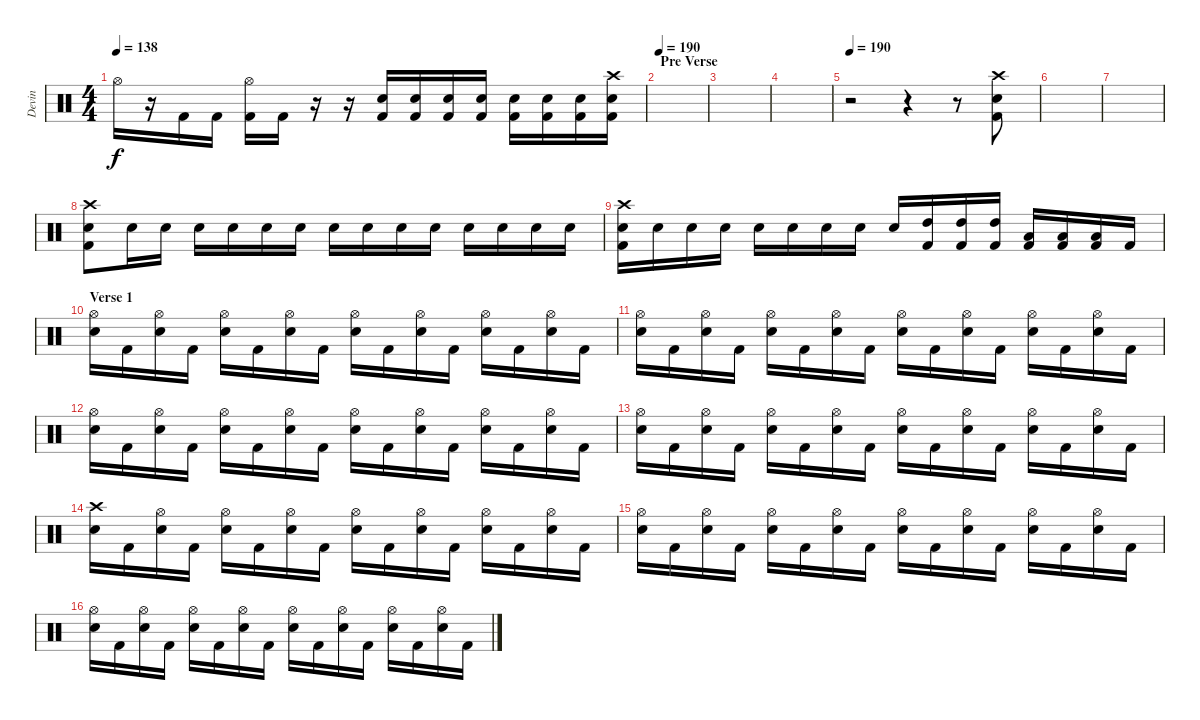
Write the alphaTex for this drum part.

\track ("Devin" "Devin") {instrument percussion}
\staff {score}
\articulation defaults
\ts (4 4)
\tempo 138
\clef neutral
\ks c "Hi-Hat (open)".16{dy f}
r.16 "Kick (hit) 2".16 "Kick (hit) 2".16 ("Hi-Hat (open)" "Kick (hit) 2").16 "Kick (hit) 2".16 r.16 r.16 ("Electric Snare (hit)" "Kick (hit) 2").16 ("Electric Snare (hit)" "Kick (hit) 2").16 ("Electric Snare (hit)" "Kick (hit) 2").16 ("Electric Snare (hit)" "Kick (hit) 2").16 ("Electric Snare (hit)" "Kick (hit) 2").16 ("Electric Snare (hit)" "Kick (hit) 2").16 ("Electric Snare (hit)" "Kick (hit) 2").16 ("Crash high (hit)" "Electric Snare (hit)" "Kick (hit) 2").16 |
\section ("" "Pre Verse")
\tempo 190
|
|
|
\tempo 190
r.2 r.4 r.8 ("Crash high (hit)" "Electric Snare (hit)" "Kick (hit) 2").8 |
|
|
("Crash high (hit)" "Electric Snare (hit)" "Kick (hit) 2").8 "Electric Snare (hit)".16 "Electric Snare (hit)".16 "Electric Snare (hit)".16 "Electric Snare (hit)".16 "Electric Snare (hit)".16 "Electric Snare (hit)".16 "Electric Snare (hit)".16 "Electric Snare (hit)".16 "Electric Snare (hit)".16 "Electric Snare (hit)".16 "Electric Snare (hit)".16 "Electric Snare (hit)".16 "Electric Snare (hit)".16 "Electric Snare (hit)".16 |
("Crash high (hit)" "Electric Snare (hit)" "Kick (hit) 2").16 "Electric Snare (hit)".16 "Electric Snare (hit)".16 "Electric Snare (hit)".16 "Electric Snare (hit)".16 "Electric Snare (hit)".16 "Electric Snare (hit)".16 "Electric Snare (hit)".16 "Electric Snare (hit)".16 ("High Tom (hit)" "Kick (hit) 2").16 ("High Tom (hit)" "Kick (hit) 2").16 ("High Tom (hit)" "Kick (hit) 2").16 ("Low Tom (hit)" "Kick (hit) 2").16 ("Low Tom (hit)" "Kick (hit) 2").16 ("Low Tom (hit)" "Kick (hit) 2").16 "Kick (hit) 2".16 |
\section ("" "Verse 1")
("Hi-Hat (open)" "Electric Snare (hit)").16 "Kick (hit) 2".16 ("Hi-Hat (open)" "Electric Snare (hit)").16 "Kick (hit) 2".16 ("Hi-Hat (open)" "Electric Snare (hit)").16 "Kick (hit) 2".16 ("Hi-Hat (open)" "Electric Snare (hit)").16 "Kick (hit) 2".16 ("Hi-Hat (open)" "Electric Snare (hit)").16 "Kick (hit) 2".16 ("Hi-Hat (open)" "Electric Snare (hit)").16 "Kick (hit) 2".16 ("Hi-Hat (open)" "Electric Snare (hit)").16 "Kick (hit) 2".16 ("Hi-Hat (open)" "Electric Snare (hit)").16 "Kick (hit) 2".16 |
("Hi-Hat (open)" "Electric Snare (hit)").16 "Kick (hit) 2".16 ("Hi-Hat (open)" "Electric Snare (hit)").16 "Kick (hit) 2".16 ("Hi-Hat (open)" "Electric Snare (hit)").16 "Kick (hit) 2".16 ("Hi-Hat (open)" "Electric Snare (hit)").16 "Kick (hit) 2".16 ("Hi-Hat (open)" "Electric Snare (hit)").16 "Kick (hit) 2".16 ("Hi-Hat (open)" "Electric Snare (hit)").16 "Kick (hit) 2".16 ("Hi-Hat (open)" "Electric Snare (hit)").16 "Kick (hit) 2".16 ("Hi-Hat (open)" "Electric Snare (hit)").16 "Kick (hit) 2".16 |
("Hi-Hat (open)" "Electric Snare (hit)").16 "Kick (hit) 2".16 ("Hi-Hat (open)" "Electric Snare (hit)").16 "Kick (hit) 2".16 ("Hi-Hat (open)" "Electric Snare (hit)").16 "Kick (hit) 2".16 ("Hi-Hat (open)" "Electric Snare (hit)").16 "Kick (hit) 2".16 ("Hi-Hat (open)" "Electric Snare (hit)").16 "Kick (hit) 2".16 ("Hi-Hat (open)" "Electric Snare (hit)").16 "Kick (hit) 2".16 ("Hi-Hat (open)" "Electric Snare (hit)").16 "Kick (hit) 2".16 ("Hi-Hat (open)" "Electric Snare (hit)").16 "Kick (hit) 2".16 |
("Hi-Hat (open)" "Electric Snare (hit)").16 "Kick (hit) 2".16 ("Hi-Hat (open)" "Electric Snare (hit)").16 "Kick (hit) 2".16 ("Hi-Hat (open)" "Electric Snare (hit)").16 "Kick (hit) 2".16 ("Hi-Hat (open)" "Electric Snare (hit)").16 "Kick (hit) 2".16 ("Hi-Hat (open)" "Electric Snare (hit)").16 "Kick (hit) 2".16 ("Hi-Hat (open)" "Electric Snare (hit)").16 "Kick (hit) 2".16 ("Hi-Hat (open)" "Electric Snare (hit)").16 "Kick (hit) 2".16 ("Hi-Hat (open)" "Electric Snare (hit)").16 "Kick (hit) 2".16 |
("Crash high (hit)" "Electric Snare (hit)").16 "Kick (hit) 2".16 ("Hi-Hat (open)" "Electric Snare (hit)").16 "Kick (hit) 2".16 ("Hi-Hat (open)" "Electric Snare (hit)").16 "Kick (hit) 2".16 ("Hi-Hat (open)" "Electric Snare (hit)").16 "Kick (hit) 2".16 ("Hi-Hat (open)" "Electric Snare (hit)").16 "Kick (hit) 2".16 ("Hi-Hat (open)" "Electric Snare (hit)").16 "Kick (hit) 2".16 ("Hi-Hat (open)" "Electric Snare (hit)").16 "Kick (hit) 2".16 ("Hi-Hat (open)" "Electric Snare (hit)").16 "Kick (hit) 2".16 |
("Hi-Hat (open)" "Electric Snare (hit)").16 "Kick (hit) 2".16 ("Hi-Hat (open)" "Electric Snare (hit)").16 "Kick (hit) 2".16 ("Hi-Hat (open)" "Electric Snare (hit)").16 "Kick (hit) 2".16 ("Hi-Hat (open)" "Electric Snare (hit)").16 "Kick (hit) 2".16 ("Hi-Hat (open)" "Electric Snare (hit)").16 "Kick (hit) 2".16 ("Hi-Hat (open)" "Electric Snare (hit)").16 "Kick (hit) 2".16 ("Hi-Hat (open)" "Electric Snare (hit)").16 "Kick (hit) 2".16 ("Hi-Hat (open)" "Electric Snare (hit)").16 "Kick (hit) 2".16 |
("Hi-Hat (open)" "Electric Snare (hit)").16 "Kick (hit) 2".16 ("Hi-Hat (open)" "Electric Snare (hit)").16 "Kick (hit) 2".16 ("Hi-Hat (open)" "Electric Snare (hit)").16 "Kick (hit) 2".16 ("Hi-Hat (open)" "Electric Snare (hit)").16 "Kick (hit) 2".16 ("Hi-Hat (open)" "Electric Snare (hit)").16 "Kick (hit) 2".16 ("Hi-Hat (open)" "Electric Snare (hit)").16 "Kick (hit) 2".16 ("Hi-Hat (open)" "Electric Snare (hit)").16 "Kick (hit) 2".16 ("Hi-Hat (open)" "Electric Snare (hit)").16 "Kick (hit) 2".16
